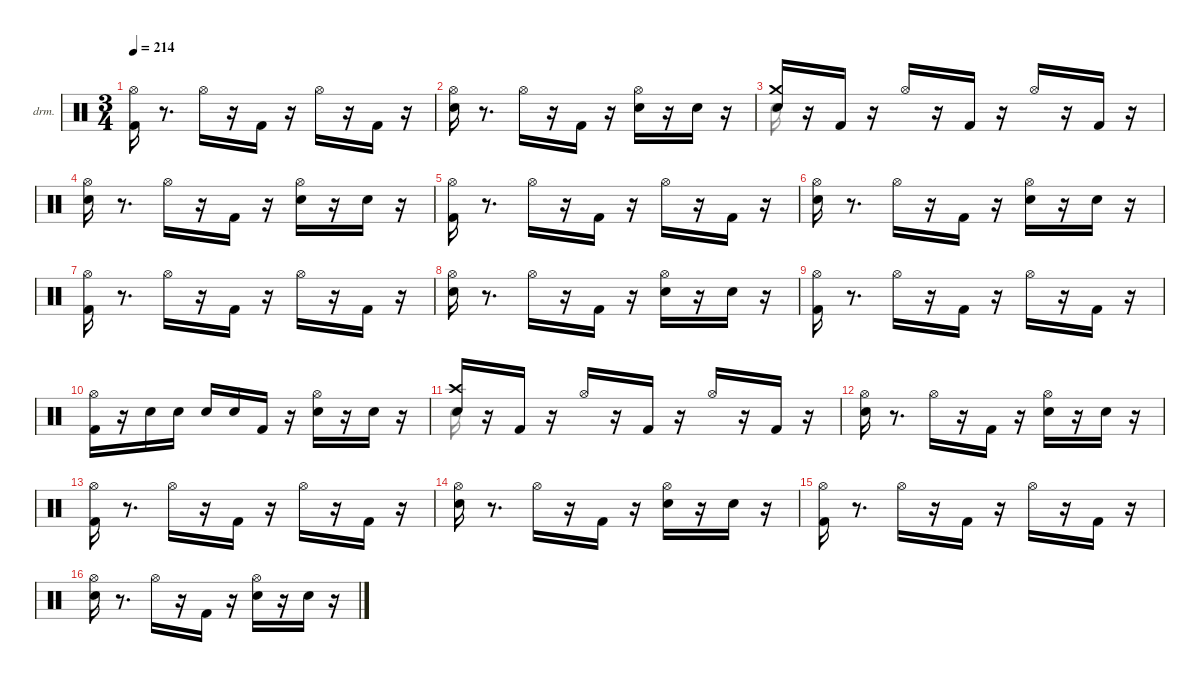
\hideDynamics
\bracketExtendMode nobrackets
\firstSystemTrackNameOrientation horizontal
\otherSystemsTrackNameOrientation horizontal
\track ("EZdrummer 3" "drm.") {instrument percussion}
\staff {score}
\articulation defaults
\voice
\ts (3 4)
\tempo 214
\clef neutral
\ks aminor
("Kick (hit) 2" "Hi-Hat (open)"{acc #}).16{dy ff beam Down} r.8{d beam Down} "Hi-Hat (open)"{acc #}.16{dy mf beam Down} r.16{beam Down} "Kick (hit) 2".16{dy p beam Up} r.16{beam Up} "Hi-Hat (open)"{acc #}.16{dy mp beam Down} r.16{beam Down} "Kick (hit) 2".16{dy mf beam Up} r.16{beam Up} |
("Snare (hit) 2" "Hi-Hat (open)"{acc #}).16{dy ff beam Down} r.8{d beam Down} "Hi-Hat (open)"{acc #}.16{dy mp beam Down} r.16{beam Down} "Kick (hit) 2".16{dy f beam Up} r.16{beam Up} ("Snare (hit) 2" "Hi-Hat (open)"{acc #}).16{dy mp beam Down} r.16{beam Down} "Snare (hit) 2".16{dy pp beam Down} r.16{beam Down} |
("Snare (hit) 2" "Crash medium (hit)").16{dy ppp beam Up} r.16{beam Up} "Kick (hit) 2".16{dy f beam Up} r.16{beam Up} "Hi-Hat (open)"{acc #}.16{dy mf beam Up} r.16{beam Up} "Kick (hit) 2".16{dy p beam Up} r.16{beam Up} "Hi-Hat (open)"{acc #}.16{dy mp beam Up} r.16{beam Up} "Kick (hit) 2".16{dy mf beam Up} r.16{beam Up} |
("Snare (hit) 2" "Hi-Hat (open)"{acc #}).16{dy ff beam Down} r.8{d beam Down} "Hi-Hat (open)"{acc #}.16{dy mf beam Down} r.16{beam Down} "Kick (hit) 2".16{dy f beam Up} r.16{beam Up} ("Snare (hit) 2" "Hi-Hat (open)"{acc #}).16{dy mp beam Down} r.16{beam Down} "Snare (hit) 2".16{dy pp beam Down} r.16{beam Down} |
("Kick (hit) 2" "Hi-Hat (open)"{acc #}).16{dy ff beam Down} r.8{d beam Down} "Hi-Hat (open)"{acc #}.16{dy mf beam Down} r.16{beam Down} "Kick (hit) 2".16{dy p beam Up} r.16{beam Up} "Hi-Hat (open)"{acc #}.16{dy mp beam Down} r.16{beam Down} "Kick (hit) 2".16{dy mf beam Up} r.16{beam Up} |
("Snare (hit) 2" "Hi-Hat (open)"{acc #}).16{beam Down} r.8{d beam Down} "Hi-Hat (open)"{acc #}.16{dy mp beam Down} r.16{beam Down} "Kick (hit) 2".16{dy f beam Up} r.16{beam Up} ("Snare (hit) 2" "Hi-Hat (open)"{acc #}).16{dy mf beam Down} r.16{beam Down} "Snare (hit) 2".16{dy pp beam Down} r.16{beam Down} |
("Kick (hit) 2" "Hi-Hat (open)"{acc #}).16{dy ff beam Down} r.8{d beam Down} "Hi-Hat (open)"{acc #}.16{dy mf beam Down} r.16{beam Down} "Kick (hit) 2".16{dy p beam Up} r.16{beam Up} "Hi-Hat (open)"{acc #}.16{dy mp beam Down} r.16{beam Down} "Kick (hit) 2".16{dy mf beam Up} r.16{beam Up} |
("Snare (hit) 2" "Hi-Hat (open)"{acc #}).16{beam Down} r.8{d beam Down} "Hi-Hat (open)"{acc #}.16{beam Down} r.16{beam Down} "Kick (hit) 2".16{dy f beam Up} r.16{beam Up} ("Snare (hit) 2" "Hi-Hat (open)"{acc #}).16{dy mp beam Down} r.16{beam Down} "Snare (hit) 2".16{dy pp beam Down} r.16{beam Down} |
("Kick (hit) 2" "Hi-Hat (open)"{acc #}).16{dy fff beam Down} r.8{d beam Down} "Hi-Hat (open)"{acc #}.16{dy mf beam Down} r.16{beam Down} "Kick (hit) 2".16{dy p beam Up} r.16{beam Up} "Hi-Hat (open)"{acc #}.16{dy mp beam Down} r.16{beam Down} "Kick (hit) 2".16{dy mf beam Up} r.16{beam Up} |
("Kick (hit) 2" "Hi-Hat (open)"{acc #}).16{dy ff beam Down} r.16{beam Down} "Snare (hit) 2".16{dy f beam Down} "Snare (hit) 2".16{dy p beam Down} "Snare (hit) 2".16{dy mp beam Up} "Snare (hit) 2".16{dy pp beam Up} "Kick (hit) 2".16{dy f beam Up} r.16{beam Up} ("Snare (hit) 2" "Hi-Hat (open)"{acc #}).16{dy mp beam Down} r.16{beam Down} "Snare (hit) 2".16{dy pp beam Down} r.16{beam Down} |
("Snare (hit) 2" "Crash high (hit)"{acc #}).16{dy ppp beam Up} r.16{beam Up} "Kick (hit) 2".16{dy f beam Up} r.16{beam Up} "Hi-Hat (open)"{acc #}.16{dy mf beam Up} r.16{beam Up} "Kick (hit) 2".16{dy p beam Up} r.16{beam Up} "Hi-Hat (open)"{acc #}.16{dy mp beam Up} r.16{beam Up} "Kick (hit) 2".16{dy mf beam Up} r.16{beam Up} |
("Snare (hit) 2" "Hi-Hat (open)"{acc #}).16{beam Down} r.8{d beam Down} "Hi-Hat (open)"{acc #}.16{beam Down} r.16{beam Down} "Kick (hit) 2".16{dy f beam Up} r.16{beam Up} ("Snare (hit) 2" "Hi-Hat (open)"{acc #}).16{dy mp beam Down} r.16{beam Down} "Snare (hit) 2".16{dy pp beam Down} r.16{beam Down} |
("Kick (hit) 2" "Hi-Hat (open)"{acc #}).16{dy ff beam Down} r.8{d beam Down} "Hi-Hat (open)"{acc #}.16{dy mf beam Down} r.16{beam Down} "Kick (hit) 2".16{dy p beam Up} r.16{beam Up} "Hi-Hat (open)"{acc #}.16{dy mp beam Down} r.16{beam Down} "Kick (hit) 2".16{dy mf beam Up} r.16{beam Up} |
("Snare (hit) 2" "Hi-Hat (open)"{acc #}).16{beam Down} r.8{d beam Down} "Hi-Hat (open)"{acc #}.16{dy mp beam Down} r.16{beam Down} "Kick (hit) 2".16{dy f beam Up} r.16{beam Up} ("Snare (hit) 2" "Hi-Hat (open)"{acc #}).16{dy mp beam Down} r.16{beam Down} "Snare (hit) 2".16{dy pp beam Down} r.16{beam Down} |
("Kick (hit) 2" "Hi-Hat (open)"{acc #}).16{dy ff beam Down} r.8{d beam Down} "Hi-Hat (open)"{acc #}.16{dy mf beam Down} r.16{beam Down} "Kick (hit) 2".16{dy p beam Up} r.16{beam Up} "Hi-Hat (open)"{acc #}.16{dy mp beam Down} r.16{beam Down} "Kick (hit) 2".16{dy mf beam Up} r.16{beam Up} |
("Snare (hit) 2" "Hi-Hat (open)"{acc #}).16{beam Down} r.8{d beam Down} "Hi-Hat (open)"{acc #}.16{beam Down} r.16{beam Down} "Kick (hit) 2".16{dy f beam Up} r.16{beam Up} ("Snare (hit) 2" "Hi-Hat (open)"{acc #}).16{dy mp beam Down} r.16{beam Down} "Snare (hit) 2".16{dy pp beam Down} r.16{beam Down}
\voice
\clef neutral
\ottava regular
\simile none
\ks aminor
|
|
"Snare (hit) 2".16{dy ff beam Down} |
|
|
|
|
|
|
|
"Snare (hit) 2".16{beam Down} |
|
|
|
|
